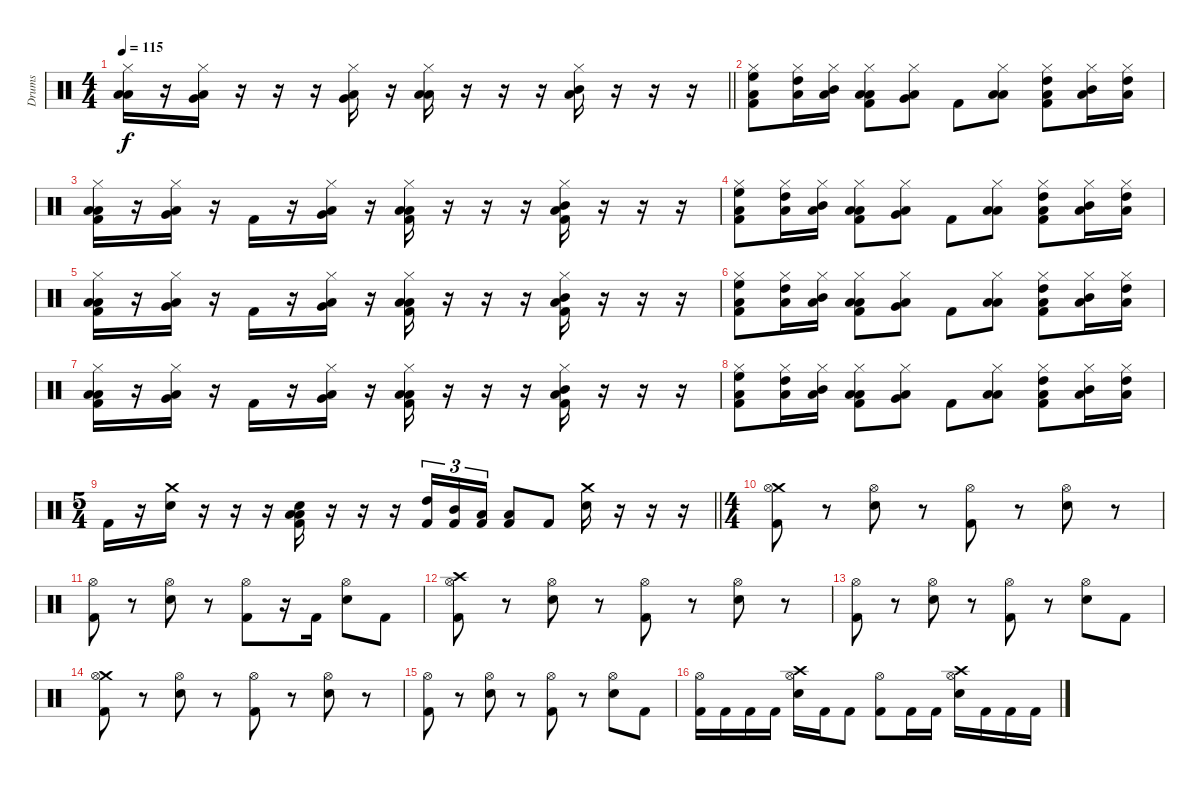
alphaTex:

\track ("Drums" "Drums") {instrument percussion}
\staff {score}
\articulation defaults
\ts (4 4)
\tempo 115
\clef neutral
\barLineRight lightlight
\ks c
("Hi-Hat (closed)" "Low Tom (hit)" "Low Floor Tom (hit)").16{dy f} r.16 ("Hi-Hat (closed)" "Very Low Tom (hit)" "Low Floor Tom (hit)").16 r.16 r.16 r.16 ("Hi-Hat (closed)" "Very Low Tom (hit)" "Low Floor Tom (hit)").16 r.16 ("Hi-Hat (closed)" "Low Tom (hit)" "Low Floor Tom (hit)").16 r.16 r.16 r.16 ("Hi-Hat (closed)" "Mid Tom (hit)" "Low Floor Tom (hit)").16 r.16 r.16 r.16 |
\section ("" "")
("Hi-Hat (closed)" "High Floor Tom (hit)" "Low Floor Tom (hit)" "Kick (hit) 2").8 ("Hi-Hat (closed)" "High Tom (hit)" "Low Floor Tom (hit)").16 ("Hi-Hat (closed)" "Mid Tom (hit)" "Low Floor Tom (hit)").16 ("Hi-Hat (closed)" "Low Tom (hit)" "Low Floor Tom (hit)" "Kick (hit) 2").8 ("Hi-Hat (closed)" "Very Low Tom (hit)" "Low Floor Tom (hit)").8 "Kick (hit) 2".8 ("Hi-Hat (closed)" "Low Tom (hit)" "Low Floor Tom (hit)").8 ("Hi-Hat (closed)" "High Tom (hit)" "Low Floor Tom (hit)" "Kick (hit) 2").8 ("Hi-Hat (closed)" "Mid Tom (hit)" "Low Floor Tom (hit)").16 ("Hi-Hat (closed)" "High Tom (hit)" "Low Floor Tom (hit)").16 |
("Hi-Hat (closed)" "Low Tom (hit)" "Low Floor Tom (hit)" "Kick (hit) 2").16 r.16 ("Hi-Hat (closed)" "Very Low Tom (hit)" "Low Floor Tom (hit)").16 r.16 "Kick (hit) 2".16 r.16 ("Hi-Hat (closed)" "Very Low Tom (hit)" "Low Floor Tom (hit)").16 r.16 ("Hi-Hat (closed)" "Low Tom (hit)" "Low Floor Tom (hit)" "Kick (hit) 2").16 r.16 r.16 r.16 ("Hi-Hat (closed)" "Mid Tom (hit)" "Low Floor Tom (hit)" "Kick (hit) 2").16 r.16 r.16 r.16 |
("Hi-Hat (closed)" "High Floor Tom (hit)" "Low Floor Tom (hit)" "Kick (hit) 2").8 ("Hi-Hat (closed)" "High Tom (hit)" "Low Floor Tom (hit)").16 ("Hi-Hat (closed)" "Mid Tom (hit)" "Low Floor Tom (hit)").16 ("Hi-Hat (closed)" "Low Tom (hit)" "Low Floor Tom (hit)" "Kick (hit) 2").8 ("Hi-Hat (closed)" "Very Low Tom (hit)" "Low Floor Tom (hit)").8 "Kick (hit) 2".8 ("Hi-Hat (closed)" "Low Tom (hit)" "Low Floor Tom (hit)").8 ("Hi-Hat (closed)" "High Tom (hit)" "Low Floor Tom (hit)" "Kick (hit) 2").8 ("Hi-Hat (closed)" "Mid Tom (hit)" "Low Floor Tom (hit)").16 ("Hi-Hat (closed)" "High Tom (hit)" "Low Floor Tom (hit)").16 |
("Hi-Hat (closed)" "Low Tom (hit)" "Low Floor Tom (hit)" "Kick (hit) 2").16 r.16 ("Hi-Hat (closed)" "Very Low Tom (hit)" "Low Floor Tom (hit)").16 r.16 "Kick (hit) 2".16 r.16 ("Hi-Hat (closed)" "Very Low Tom (hit)" "Low Floor Tom (hit)").16 r.16 ("Hi-Hat (closed)" "Low Tom (hit)" "Low Floor Tom (hit)" "Kick (hit) 2").16 r.16 r.16 r.16 ("Hi-Hat (closed)" "Mid Tom (hit)" "Low Floor Tom (hit)" "Kick (hit) 2").16 r.16 r.16 r.16 |
("Hi-Hat (closed)" "High Floor Tom (hit)" "Low Floor Tom (hit)" "Kick (hit) 2").8 ("Hi-Hat (closed)" "High Tom (hit)" "Low Floor Tom (hit)").16 ("Hi-Hat (closed)" "Mid Tom (hit)" "Low Floor Tom (hit)").16 ("Hi-Hat (closed)" "Low Tom (hit)" "Low Floor Tom (hit)" "Kick (hit) 2").8 ("Hi-Hat (closed)" "Very Low Tom (hit)" "Low Floor Tom (hit)").8 "Kick (hit) 2".8 ("Hi-Hat (closed)" "Low Tom (hit)" "Low Floor Tom (hit)").8 ("Hi-Hat (closed)" "High Tom (hit)" "Low Floor Tom (hit)" "Kick (hit) 2").8 ("Hi-Hat (closed)" "Mid Tom (hit)" "Low Floor Tom (hit)").16 ("Hi-Hat (closed)" "High Tom (hit)" "Low Floor Tom (hit)").16 |
("Hi-Hat (closed)" "Low Tom (hit)" "Low Floor Tom (hit)" "Kick (hit) 2").16 r.16 ("Hi-Hat (closed)" "Very Low Tom (hit)" "Low Floor Tom (hit)").16 r.16 "Kick (hit) 2".16 r.16 ("Hi-Hat (closed)" "Very Low Tom (hit)" "Low Floor Tom (hit)").16 r.16 ("Hi-Hat (closed)" "Low Tom (hit)" "Low Floor Tom (hit)" "Kick (hit) 2").16 r.16 r.16 r.16 ("Hi-Hat (closed)" "Mid Tom (hit)" "Low Floor Tom (hit)" "Kick (hit) 2").16 r.16 r.16 r.16 |
("Hi-Hat (closed)" "High Floor Tom (hit)" "Low Floor Tom (hit)" "Kick (hit) 2").8 ("Hi-Hat (closed)" "High Tom (hit)" "Low Floor Tom (hit)").16 ("Hi-Hat (closed)" "Mid Tom (hit)" "Low Floor Tom (hit)").16 ("Hi-Hat (closed)" "Low Tom (hit)" "Low Floor Tom (hit)" "Kick (hit) 2").8 ("Hi-Hat (closed)" "Very Low Tom (hit)" "Low Floor Tom (hit)").8 "Kick (hit) 2".8 ("Hi-Hat (closed)" "Low Tom (hit)" "Low Floor Tom (hit)").8 ("Hi-Hat (closed)" "High Tom (hit)" "Low Floor Tom (hit)" "Kick (hit) 2").8 ("Hi-Hat (closed)" "Mid Tom (hit)" "Low Floor Tom (hit)").16 ("Hi-Hat (closed)" "High Tom (hit)" "Low Floor Tom (hit)").16 |
\ts (5 4)
\barLineRight lightlight "Kick (hit) 2".16{volume 16}
r.16 ("Crash medium (hit)" "Electric Snare (hit)").16 r.16 r.16 r.16 ("Electric Snare (hit)" "Low Floor Tom (hit)" "Low Tom (hit)" "Kick (hit) 2").16 r.16 r.16 r.16 ("High Tom (hit)" "Kick (hit) 2").16{tu (3 2)} ("Mid Tom (hit)" "Kick (hit) 2").16{tu (3 2)} ("Low Tom (hit)" "Kick (hit) 2").16{tu (3 2)} ("Low Floor Tom (hit)" "Kick (hit) 2").8 "Kick (hit) 2".8 ("Crash medium (hit)" "Electric Snare (hit)").16 r.16 r.16 r.16 |
\ts (4 4)
\section ("" "")
("Crash medium (hit)" "Hi-Hat (open)" "Kick (hit) 2").8{volume 16} r.8 ("Hi-Hat (open)" "Electric Snare (hit)").8 r.8 ("Hi-Hat (open)" "Kick (hit) 2").8 r.8 ("Hi-Hat (open)" "Electric Snare (hit)").8 r.8 |
("Hi-Hat (open)" "Kick (hit) 2").8 r.8 ("Hi-Hat (open)" "Electric Snare (hit)").8 r.8 ("Hi-Hat (open)" "Kick (hit) 2").8 r.16 "Kick (hit) 2".16 ("Hi-Hat (open)" "Electric Snare (hit)").8 "Kick (hit) 2".8 |
("Crash high (hit)" "Hi-Hat (open)" "Kick (hit) 2").8 r.8 ("Hi-Hat (open)" "Electric Snare (hit)").8 r.8 ("Hi-Hat (open)" "Kick (hit) 2").8 r.8 ("Hi-Hat (open)" "Electric Snare (hit)").8 r.8 |
("Hi-Hat (open)" "Kick (hit) 2").8 r.8 ("Hi-Hat (open)" "Electric Snare (hit)").8 r.8 ("Hi-Hat (open)" "Kick (hit) 2").8 r.8 ("Hi-Hat (open)" "Electric Snare (hit)").8 "Kick (hit) 2".8 |
("Crash medium (hit)" "Hi-Hat (open)" "Kick (hit) 2").8 r.8 ("Hi-Hat (open)" "Electric Snare (hit)").8 r.8 ("Hi-Hat (open)" "Kick (hit) 2").8 r.8 ("Hi-Hat (open)" "Electric Snare (hit)").8 r.8 |
("Hi-Hat (open)" "Kick (hit) 2").8 r.8 ("Hi-Hat (open)" "Electric Snare (hit)").8 r.8 ("Hi-Hat (open)" "Kick (hit) 2").8 r.8 ("Hi-Hat (open)" "Electric Snare (hit)").8 "Kick (hit) 2".8 |
("Hi-Hat (open)" "Kick (hit) 2").16 "Kick (hit) 2".16 "Kick (hit) 2".16 "Kick (hit) 2".16 ("Crash high (hit)" "Hi-Hat (open)" "Electric Snare (hit)").16 "Kick (hit) 2".16 "Kick (hit) 2".8 ("Hi-Hat (open)" "Kick (hit) 2").8 "Kick (hit) 2".16 "Kick (hit) 2".16 ("Crash high (hit)" "Hi-Hat (open)" "Electric Snare (hit)").16 "Kick (hit) 2".16 "Kick (hit) 2".16 "Kick (hit) 2".16
